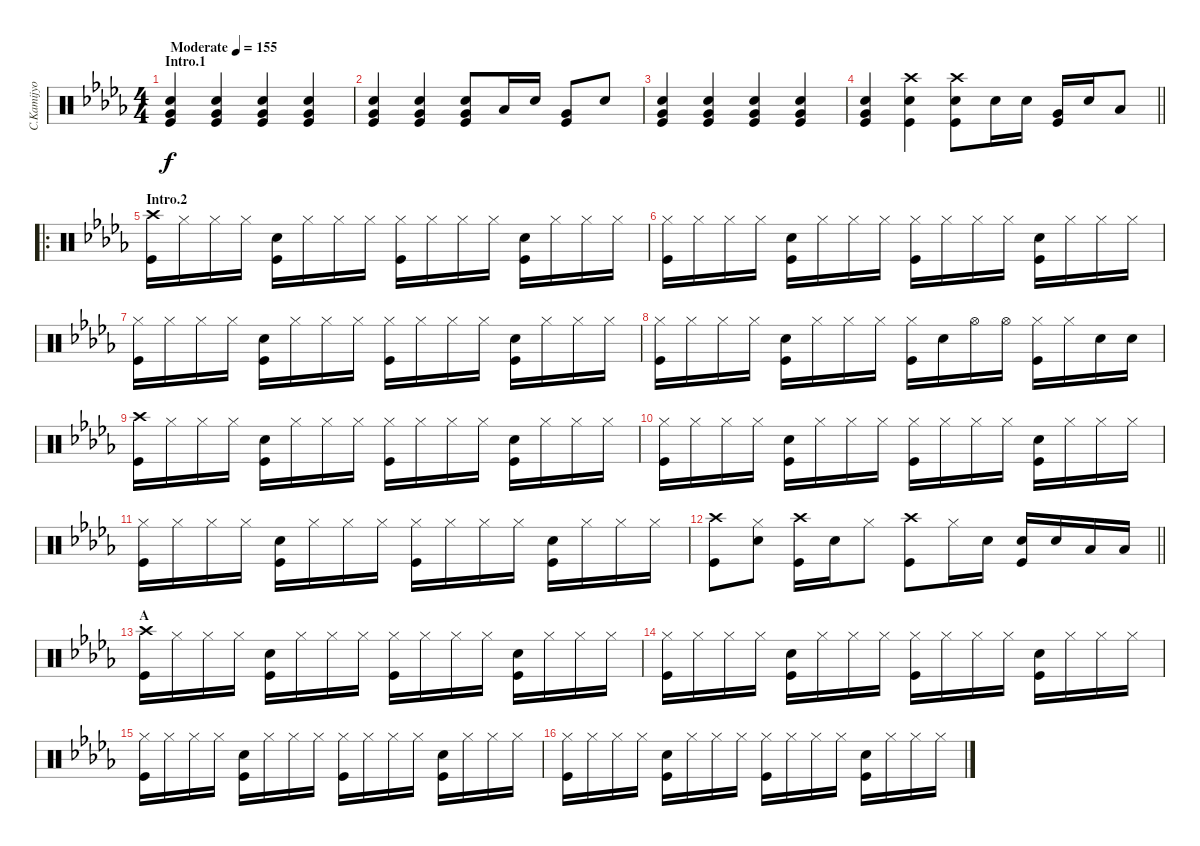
\track ("C.Kamijyo DRUMS" "C.Kamijyo ") {instrument percussion}
\staff {score}
\articulation defaults
\ts (4 4)
\section ("" "Intro.1")
\tempo (155 "Moderate")
\clef neutral
\ks db
("Snare (hit) 2" "Kick (hit)" "Very Low Tom (hit)").4{dy f} ("Snare (hit) 2" "Kick (hit)" "Very Low Tom (hit)").4 ("Snare (hit) 2" "Kick (hit)" "Very Low Tom (hit)").4 ("Snare (hit) 2" "Kick (hit)" "Very Low Tom (hit)").4 |
("Snare (hit) 2" "Kick (hit)" "Very Low Tom (hit)").4 ("Snare (hit) 2" "Kick (hit)" "Very Low Tom (hit)").4 ("Very Low Tom (hit)" "Kick (hit)" "Snare (hit) 2").8 "Low Tom (hit)".16 "Snare (hit) 2".16 ("Very Low Tom (hit)" "Kick (hit)").8 "Snare (hit) 2".8 |
("Snare (hit) 2" "Kick (hit)" "Very Low Tom (hit)").4 ("Snare (hit) 2" "Kick (hit)" "Very Low Tom (hit)").4 ("Snare (hit) 2" "Kick (hit)" "Very Low Tom (hit)").4 ("Snare (hit) 2" "Kick (hit)" "Very Low Tom (hit)").4 |
\barLineRight lightlight
("Snare (hit) 2" "Very Low Tom (hit)" "Kick (hit)").4 ("Crash high (hit)" "Snare (hit) 2" "Kick (hit)").4 ("Crash high (hit)" "Snare (hit) 2" "Kick (hit)").8 "Snare (hit) 2".16 "Snare (hit) 2".16 ("Very Low Tom (hit)" "Kick (hit)").16 "Snare (hit) 2".16 "Low Tom (hit)".8 |
\ro
\section ("" "Intro.2")
("Crash high (hit)" "Kick (hit)").16 "Hi-Hat (closed)".16 "Hi-Hat (closed)".16 "Hi-Hat (closed)".16 ("Snare (hit) 2" "Kick (hit)").16 "Hi-Hat (closed)".16 "Hi-Hat (closed)".16 "Hi-Hat (closed)".16 ("Hi-Hat (closed)" "Kick (hit)").16 "Hi-Hat (closed)".16 "Hi-Hat (closed)".16 "Hi-Hat (closed)".16 ("Snare (hit) 2" "Kick (hit)").16 "Hi-Hat (closed)".16 "Hi-Hat (closed)".16 "Hi-Hat (closed)".16 |
("Hi-Hat (closed)" "Kick (hit)").16 "Hi-Hat (closed)".16 "Hi-Hat (closed)".16 "Hi-Hat (closed)".16 ("Snare (hit) 2" "Kick (hit)").16 "Hi-Hat (closed)".16 "Hi-Hat (closed)".16 "Hi-Hat (closed)".16 ("Hi-Hat (closed)" "Kick (hit)").16 "Hi-Hat (closed)".16 "Hi-Hat (closed)".16 "Hi-Hat (closed)".16 ("Snare (hit) 2" "Kick (hit)").16 "Hi-Hat (closed)".16 "Hi-Hat (closed)".16 "Hi-Hat (closed)".16 |
("Hi-Hat (closed)" "Kick (hit)").16 "Hi-Hat (closed)".16 "Hi-Hat (closed)".16 "Hi-Hat (closed)".16 ("Snare (hit) 2" "Kick (hit)").16 "Hi-Hat (closed)".16 "Hi-Hat (closed)".16 "Hi-Hat (closed)".16 ("Hi-Hat (closed)" "Kick (hit)").16 "Hi-Hat (closed)".16 "Hi-Hat (closed)".16 "Hi-Hat (closed)".16 ("Snare (hit) 2" "Kick (hit)").16 "Hi-Hat (closed)".16 "Hi-Hat (closed)".16 "Hi-Hat (closed)".16 |
("Hi-Hat (closed)" "Kick (hit)").16 "Hi-Hat (closed)".16 "Hi-Hat (closed)".16 "Hi-Hat (closed)".16 ("Snare (hit) 2" "Kick (hit)").16 "Hi-Hat (closed)".16 "Hi-Hat (closed)".16 "Hi-Hat (closed)".16 ("Hi-Hat (closed)" "Kick (hit)").16 "Snare (hit) 2".16 "Hi-Hat (open)".16 "Hi-Hat (open)".16 ("Hi-Hat (closed)" "Kick (hit)").16 "Hi-Hat (closed)".16 "Snare (hit) 2".16 "Snare (hit) 2".16 |
("Crash high (hit)" "Kick (hit)").16 "Hi-Hat (closed)".16 "Hi-Hat (closed)".16 "Hi-Hat (closed)".16 ("Snare (hit) 2" "Kick (hit)").16 "Hi-Hat (closed)".16 "Hi-Hat (closed)".16 "Hi-Hat (closed)".16 ("Hi-Hat (closed)" "Kick (hit)").16 "Hi-Hat (closed)".16 "Hi-Hat (closed)".16 "Hi-Hat (closed)".16 ("Snare (hit) 2" "Kick (hit)").16 "Hi-Hat (closed)".16 "Hi-Hat (closed)".16 "Hi-Hat (closed)".16 |
("Hi-Hat (closed)" "Kick (hit)").16 "Hi-Hat (closed)".16 "Hi-Hat (closed)".16 "Hi-Hat (closed)".16 ("Snare (hit) 2" "Kick (hit)").16 "Hi-Hat (closed)".16 "Hi-Hat (closed)".16 "Hi-Hat (closed)".16 ("Hi-Hat (closed)" "Kick (hit)").16 "Hi-Hat (closed)".16 "Hi-Hat (closed)".16 "Hi-Hat (closed)".16 ("Snare (hit) 2" "Kick (hit)").16 "Hi-Hat (closed)".16 "Hi-Hat (closed)".16 "Hi-Hat (closed)".16 |
("Hi-Hat (closed)" "Kick (hit)").16 "Hi-Hat (closed)".16 "Hi-Hat (closed)".16 "Hi-Hat (closed)".16 ("Snare (hit) 2" "Kick (hit)").16 "Hi-Hat (closed)".16 "Hi-Hat (closed)".16 "Hi-Hat (closed)".16 ("Hi-Hat (closed)" "Kick (hit)").16 "Hi-Hat (closed)".16 "Hi-Hat (closed)".16 "Hi-Hat (closed)".16 ("Snare (hit) 2" "Kick (hit)").16 "Hi-Hat (closed)".16 "Hi-Hat (closed)".16 "Hi-Hat (closed)".16 |
\barLineRight lightlight
("Crash high (hit)" "Kick (hit)").8 ("Hi-Hat (closed)" "Snare (hit) 2").8 ("Crash high (hit)" "Kick (hit)").16 "Snare (hit) 2".16 "Hi-Hat (closed)".8 ("Crash high (hit)" "Kick (hit)").8 "Hi-Hat (closed)".16 "Snare (hit) 2".16 ("Snare (hit) 2" "Kick (hit)").16 "Snare (hit) 2".16 "Low Tom (hit)".16 "Low Tom (hit)".16 |
\section ("" "A")
("Crash high (hit)" "Kick (hit)").16 "Hi-Hat (closed)".16 "Hi-Hat (closed)".16 "Hi-Hat (closed)".16 ("Snare (hit) 2" "Kick (hit)").16 "Hi-Hat (closed)".16 "Hi-Hat (closed)".16 "Hi-Hat (closed)".16 ("Hi-Hat (closed)" "Kick (hit)").16 "Hi-Hat (closed)".16 "Hi-Hat (closed)".16 "Hi-Hat (closed)".16 ("Snare (hit) 2" "Kick (hit)").16 "Hi-Hat (closed)".16 "Hi-Hat (closed)".16 "Hi-Hat (closed)".16 |
("Hi-Hat (closed)" "Kick (hit)").16 "Hi-Hat (closed)".16 "Hi-Hat (closed)".16 "Hi-Hat (closed)".16 ("Snare (hit) 2" "Kick (hit)").16 "Hi-Hat (closed)".16 "Hi-Hat (closed)".16 "Hi-Hat (closed)".16 ("Hi-Hat (closed)" "Kick (hit)").16 "Hi-Hat (closed)".16 "Hi-Hat (closed)".16 "Hi-Hat (closed)".16 ("Snare (hit) 2" "Kick (hit)").16 "Hi-Hat (closed)".16 "Hi-Hat (closed)".16 "Hi-Hat (closed)".16 |
("Hi-Hat (closed)" "Kick (hit)").16 "Hi-Hat (closed)".16 "Hi-Hat (closed)".16 "Hi-Hat (closed)".16 ("Snare (hit) 2" "Kick (hit)").16 "Hi-Hat (closed)".16 "Hi-Hat (closed)".16 "Hi-Hat (closed)".16 ("Hi-Hat (closed)" "Kick (hit)").16 "Hi-Hat (closed)".16 "Hi-Hat (closed)".16 "Hi-Hat (closed)".16 ("Snare (hit) 2" "Kick (hit)").16 "Hi-Hat (closed)".16 "Hi-Hat (closed)".16 "Hi-Hat (closed)".16 |
("Hi-Hat (closed)" "Kick (hit)").16 "Hi-Hat (closed)".16 "Hi-Hat (closed)".16 "Hi-Hat (closed)".16 ("Snare (hit) 2" "Kick (hit)").16 "Hi-Hat (closed)".16 "Hi-Hat (closed)".16 "Hi-Hat (closed)".16 ("Hi-Hat (closed)" "Kick (hit)").16 "Hi-Hat (closed)".16 "Hi-Hat (closed)".16 "Hi-Hat (closed)".16 ("Snare (hit) 2" "Kick (hit)").16 "Hi-Hat (closed)".16 "Hi-Hat (closed)".16 "Hi-Hat (closed)".16
